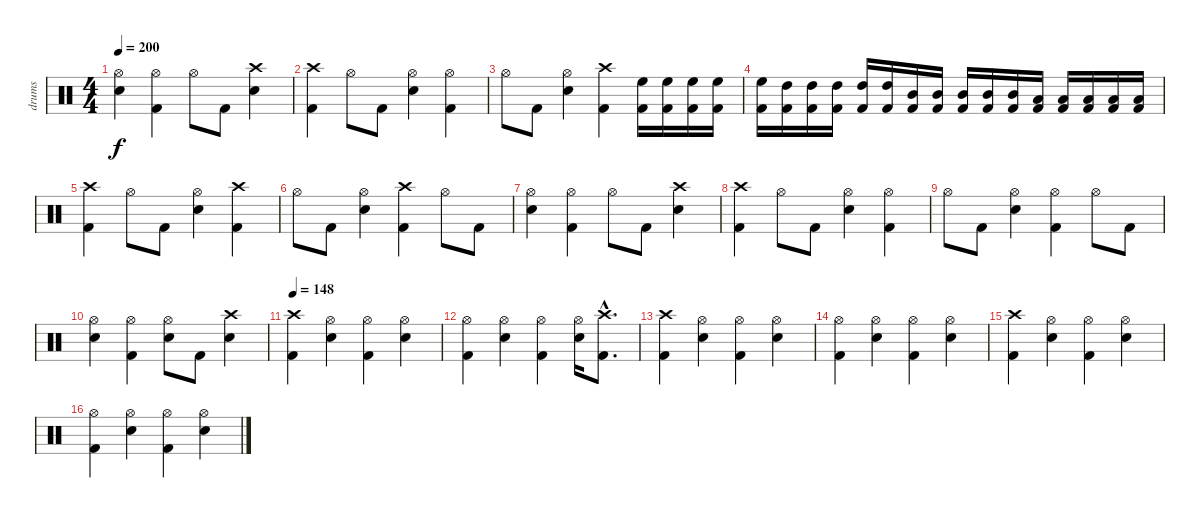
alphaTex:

\track ("drums" "drums") {instrument percussion}
\staff {score}
\articulation defaults
\ts (4 4)
\tempo 200
\clef neutral
\ks c
("Snare (hit) 2" "Hi-Hat (open)").4{dy f} ("Kick (hit) 2" "Hi-Hat (open)").4 "Hi-Hat (open)".8 "Kick (hit) 2".8 ("Snare (hit) 2" "Crash high (hit)").4 |
("Kick (hit) 2" "Crash high (hit)").4 "Hi-Hat (open)".8 "Kick (hit) 2".8 ("Snare (hit) 2" "Hi-Hat (open)").4 ("Kick (hit) 2" "Hi-Hat (open)").4 |
"Hi-Hat (open)".8 "Kick (hit) 2".8 ("Snare (hit) 2" "Hi-Hat (open)").4 ("Kick (hit) 2" "Crash high (hit)").4 ("Kick (hit) 2" "High Floor Tom (hit)").16 ("Kick (hit) 2" "High Floor Tom (hit)").16 ("Kick (hit) 2" "High Floor Tom (hit)").16 ("Kick (hit) 2" "High Floor Tom (hit)").16 |
("Kick (hit) 2" "High Floor Tom (hit)").16 ("Kick (hit) 2" "High Tom (hit)").16 ("Kick (hit) 2" "High Tom (hit)").16 ("Kick (hit) 2" "High Tom (hit)").16 ("Kick (hit) 2" "High Tom (hit)").16 ("Kick (hit) 2" "High Tom (hit)").16 ("Kick (hit) 2" "Mid Tom (hit)").16 ("Kick (hit) 2" "Mid Tom (hit)").16 ("Kick (hit) 2" "Mid Tom (hit)").16 ("Kick (hit) 2" "Mid Tom (hit)").16 ("Kick (hit) 2" "Mid Tom (hit)").16 ("Kick (hit) 2" "Low Tom (hit)").16 ("Kick (hit) 2" "Low Tom (hit)").16 ("Kick (hit) 2" "Low Tom (hit)").16 ("Kick (hit) 2" "Low Tom (hit)").16 ("Kick (hit) 2" "Low Tom (hit)").16 |
("Kick (hit) 2" "Crash high (hit)").4 "Hi-Hat (open)".8 "Kick (hit) 2".8 ("Snare (hit) 2" "Hi-Hat (open)").4 ("Kick (hit) 2" "Crash high (hit)").4 |
"Hi-Hat (open)".8 "Kick (hit) 2".8 ("Snare (hit) 2" "Hi-Hat (open)").4 ("Kick (hit) 2" "Crash high (hit)").4 "Hi-Hat (open)".8 "Kick (hit) 2".8 |
("Snare (hit) 2" "Hi-Hat (open)").4 ("Kick (hit) 2" "Hi-Hat (open)").4 "Hi-Hat (open)".8 "Kick (hit) 2".8 ("Snare (hit) 2" "Crash high (hit)").4 |
("Kick (hit) 2" "Crash high (hit)").4 "Hi-Hat (open)".8 "Kick (hit) 2".8 ("Snare (hit) 2" "Hi-Hat (open)").4 ("Kick (hit) 2" "Hi-Hat (open)").4 |
"Hi-Hat (open)".8 "Kick (hit) 2".8 ("Snare (hit) 2" "Hi-Hat (open)").4 ("Kick (hit) 2" "Hi-Hat (open)").4 "Hi-Hat (open)".8 "Kick (hit) 2".8 |
("Snare (hit) 2" "Hi-Hat (open)").4 ("Kick (hit) 2" "Hi-Hat (open)").4 ("Snare (hit) 2" "Hi-Hat (open)").8 "Kick (hit) 2".8 ("Snare (hit) 2" "Crash high (hit)").4 |
\tempo 148
("Kick (hit) 2" "Crash high (hit)").4 ("Snare (hit) 2" "Hi-Hat (open)").4 ("Kick (hit) 2" "Hi-Hat (open)").4 ("Snare (hit) 2" "Hi-Hat (open)").4 |
("Kick (hit) 2" "Hi-Hat (open)").4 ("Snare (hit) 2" "Hi-Hat (open)").4 ("Kick (hit) 2" "Hi-Hat (open)").4 ("Snare (hit) 2" "Hi-Hat (open)").16 ("Kick (hit) 2"{hac} "Crash high (hit)"{hac}).8{d} |
("Kick (hit) 2" "Crash high (hit)").4 ("Snare (hit) 2" "Hi-Hat (open)").4 ("Kick (hit) 2" "Hi-Hat (open)").4 ("Snare (hit) 2" "Hi-Hat (open)").4 |
("Kick (hit) 2" "Hi-Hat (open)").4 ("Snare (hit) 2" "Hi-Hat (open)").4 ("Kick (hit) 2" "Hi-Hat (open)").4 ("Snare (hit) 2" "Hi-Hat (open)").4 |
("Kick (hit) 2" "Crash high (hit)").4 ("Snare (hit) 2" "Hi-Hat (open)").4 ("Kick (hit) 2" "Hi-Hat (open)").4 ("Snare (hit) 2" "Hi-Hat (open)").4 |
("Kick (hit) 2" "Hi-Hat (open)").4 ("Snare (hit) 2" "Hi-Hat (open)").4 ("Kick (hit) 2" "Hi-Hat (open)").4 ("Snare (hit) 2" "Hi-Hat (open)").4
